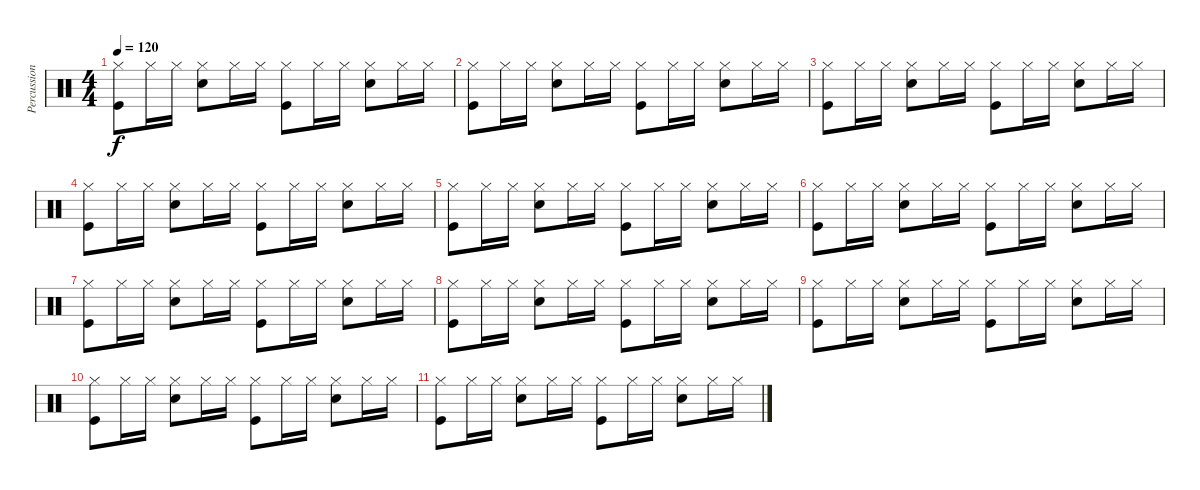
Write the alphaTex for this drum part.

\track ("Percussions" "Percussion") {instrument percussion}
\staff {score}
\articulation defaults
\ts (4 4)
\tempo 120
\clef neutral
\ks c
("Hi-Hat (closed)" "Kick (hit)").8{dy f} "Hi-Hat (closed)".16 "Hi-Hat (closed)".16 ("Hi-Hat (closed)" "Snare (hit) 2").8 "Hi-Hat (closed)".16 "Hi-Hat (closed)".16 ("Hi-Hat (closed)" "Kick (hit)").8 "Hi-Hat (closed)".16 "Hi-Hat (closed)".16 ("Hi-Hat (closed)" "Snare (hit) 2").8 "Hi-Hat (closed)".16 "Hi-Hat (closed)".16 |
("Hi-Hat (closed)" "Kick (hit)").8 "Hi-Hat (closed)".16 "Hi-Hat (closed)".16 ("Hi-Hat (closed)" "Snare (hit) 2").8 "Hi-Hat (closed)".16 "Hi-Hat (closed)".16 ("Hi-Hat (closed)" "Kick (hit)").8 "Hi-Hat (closed)".16 "Hi-Hat (closed)".16 ("Hi-Hat (closed)" "Snare (hit) 2").8 "Hi-Hat (closed)".16 "Hi-Hat (closed)".16 |
("Hi-Hat (closed)" "Kick (hit)").8 "Hi-Hat (closed)".16 "Hi-Hat (closed)".16 ("Hi-Hat (closed)" "Snare (hit) 2").8 "Hi-Hat (closed)".16 "Hi-Hat (closed)".16 ("Hi-Hat (closed)" "Kick (hit)").8 "Hi-Hat (closed)".16 "Hi-Hat (closed)".16 ("Hi-Hat (closed)" "Snare (hit) 2").8 "Hi-Hat (closed)".16 "Hi-Hat (closed)".16 |
("Hi-Hat (closed)" "Kick (hit)").8 "Hi-Hat (closed)".16 "Hi-Hat (closed)".16 ("Hi-Hat (closed)" "Snare (hit) 2").8 "Hi-Hat (closed)".16 "Hi-Hat (closed)".16 ("Hi-Hat (closed)" "Kick (hit)").8 "Hi-Hat (closed)".16 "Hi-Hat (closed)".16 ("Hi-Hat (closed)" "Snare (hit) 2").8 "Hi-Hat (closed)".16 "Hi-Hat (closed)".16 |
("Hi-Hat (closed)" "Kick (hit)").8 "Hi-Hat (closed)".16 "Hi-Hat (closed)".16 ("Hi-Hat (closed)" "Snare (hit) 2").8 "Hi-Hat (closed)".16 "Hi-Hat (closed)".16 ("Hi-Hat (closed)" "Kick (hit)").8 "Hi-Hat (closed)".16 "Hi-Hat (closed)".16 ("Hi-Hat (closed)" "Snare (hit) 2").8 "Hi-Hat (closed)".16 "Hi-Hat (closed)".16 |
("Hi-Hat (closed)" "Kick (hit)").8 "Hi-Hat (closed)".16 "Hi-Hat (closed)".16 ("Hi-Hat (closed)" "Snare (hit) 2").8 "Hi-Hat (closed)".16 "Hi-Hat (closed)".16 ("Hi-Hat (closed)" "Kick (hit)").8 "Hi-Hat (closed)".16 "Hi-Hat (closed)".16 ("Hi-Hat (closed)" "Snare (hit) 2").8 "Hi-Hat (closed)".16 "Hi-Hat (closed)".16 |
("Hi-Hat (closed)" "Kick (hit)").8 "Hi-Hat (closed)".16 "Hi-Hat (closed)".16 ("Hi-Hat (closed)" "Snare (hit) 2").8 "Hi-Hat (closed)".16 "Hi-Hat (closed)".16 ("Hi-Hat (closed)" "Kick (hit)").8 "Hi-Hat (closed)".16 "Hi-Hat (closed)".16 ("Hi-Hat (closed)" "Snare (hit) 2").8 "Hi-Hat (closed)".16 "Hi-Hat (closed)".16 |
("Hi-Hat (closed)" "Kick (hit)").8 "Hi-Hat (closed)".16 "Hi-Hat (closed)".16 ("Hi-Hat (closed)" "Snare (hit) 2").8 "Hi-Hat (closed)".16 "Hi-Hat (closed)".16 ("Hi-Hat (closed)" "Kick (hit)").8 "Hi-Hat (closed)".16 "Hi-Hat (closed)".16 ("Hi-Hat (closed)" "Snare (hit) 2").8 "Hi-Hat (closed)".16 "Hi-Hat (closed)".16 |
("Hi-Hat (closed)" "Kick (hit)").8 "Hi-Hat (closed)".16 "Hi-Hat (closed)".16 ("Hi-Hat (closed)" "Snare (hit) 2").8 "Hi-Hat (closed)".16 "Hi-Hat (closed)".16 ("Hi-Hat (closed)" "Kick (hit)").8 "Hi-Hat (closed)".16 "Hi-Hat (closed)".16 ("Hi-Hat (closed)" "Snare (hit) 2").8 "Hi-Hat (closed)".16 "Hi-Hat (closed)".16 |
("Hi-Hat (closed)" "Kick (hit)").8 "Hi-Hat (closed)".16 "Hi-Hat (closed)".16 ("Hi-Hat (closed)" "Snare (hit) 2").8 "Hi-Hat (closed)".16 "Hi-Hat (closed)".16 ("Hi-Hat (closed)" "Kick (hit)").8 "Hi-Hat (closed)".16 "Hi-Hat (closed)".16 ("Hi-Hat (closed)" "Snare (hit) 2").8 "Hi-Hat (closed)".16 "Hi-Hat (closed)".16 |
("Hi-Hat (closed)" "Kick (hit)").8 "Hi-Hat (closed)".16 "Hi-Hat (closed)".16 ("Hi-Hat (closed)" "Snare (hit) 2").8 "Hi-Hat (closed)".16 "Hi-Hat (closed)".16 ("Hi-Hat (closed)" "Kick (hit)").8 "Hi-Hat (closed)".16 "Hi-Hat (closed)".16 ("Hi-Hat (closed)" "Snare (hit) 2").8 "Hi-Hat (closed)".16 "Hi-Hat (closed)".16
